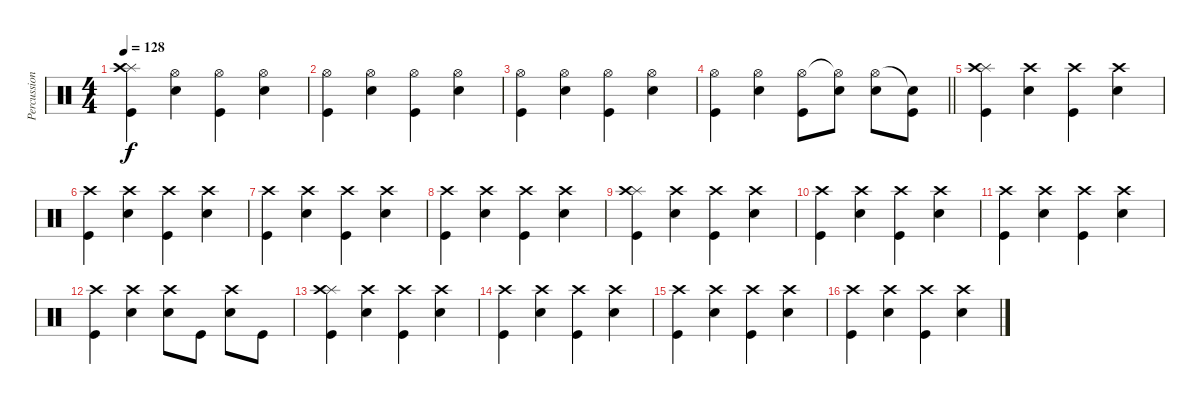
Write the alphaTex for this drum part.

\track ("Percussion" "Percussion") {instrument percussion}
\staff {score}
\articulation defaults
\ts (4 4)
\tempo 128
\clef neutral
\ks c
("Splash (hit)" "Crash high (hit)" "Kick (hit)").4{dy f} ("Hi-Hat (open)" "Electric Snare (hit)").4 ("Hi-Hat (open)" "Kick (hit)").4 ("Hi-Hat (open)" "Electric Snare (hit)").4 |
("Hi-Hat (open)" "Kick (hit)").4 ("Hi-Hat (open)" "Electric Snare (hit)").4 ("Hi-Hat (open)" "Kick (hit)").4 ("Hi-Hat (open)" "Electric Snare (hit)").4 |
("Hi-Hat (open)" "Kick (hit)").4 ("Hi-Hat (open)" "Electric Snare (hit)").4 ("Hi-Hat (open)" "Kick (hit)").4 ("Hi-Hat (open)" "Electric Snare (hit)").4 |
\barLineRight lightlight
("Hi-Hat (open)" "Kick (hit)").4 ("Hi-Hat (open)" "Electric Snare (hit)").4 ("Hi-Hat (open)" "Kick (hit)").8 ("Hi-Hat (open)"{t} "Electric Snare (hit)").8 ("Hi-Hat (open)" "Electric Snare (hit)").8 ("Snare (hit)"{t} "Kick (hit)").8 |
("Splash (hit)" "Crash high (hit)" "Kick (hit)").4 ("Crash high (hit)" "Electric Snare (hit)").4 ("Crash high (hit)" "Kick (hit)").4 ("Crash high (hit)" "Electric Snare (hit)").4 |
("Crash high (hit)" "Kick (hit)").4 ("Crash high (hit)" "Electric Snare (hit)").4 ("Crash high (hit)" "Kick (hit)").4 ("Crash high (hit)" "Electric Snare (hit)").4 |
("Crash high (hit)" "Kick (hit)").4 ("Crash high (hit)" "Electric Snare (hit)").4 ("Crash high (hit)" "Kick (hit)").4 ("Crash high (hit)" "Electric Snare (hit)").4 |
("Crash high (hit)" "Kick (hit)").4 ("Crash high (hit)" "Electric Snare (hit)").4 ("Crash high (hit)" "Kick (hit)").4 ("Crash high (hit)" "Electric Snare (hit)").4 |
("Splash (hit)" "Crash high (hit)" "Kick (hit)").4 ("Crash high (hit)" "Electric Snare (hit)").4 ("Crash high (hit)" "Kick (hit)").4 ("Crash high (hit)" "Electric Snare (hit)").4 |
("Crash high (hit)" "Kick (hit)").4 ("Crash high (hit)" "Electric Snare (hit)").4 ("Crash high (hit)" "Kick (hit)").4 ("Crash high (hit)" "Electric Snare (hit)").4 |
("Crash high (hit)" "Kick (hit)").4 ("Crash high (hit)" "Electric Snare (hit)").4 ("Crash high (hit)" "Kick (hit)").4 ("Crash high (hit)" "Electric Snare (hit)").4 |
("Crash high (hit)" "Kick (hit)").4 ("Crash high (hit)" "Electric Snare (hit)").4 ("Crash high (hit)" "Electric Snare (hit)").8 "Kick (hit)".8 ("Crash high (hit)" "Electric Snare (hit)").8 "Kick (hit)".8 |
("Splash (hit)" "Crash high (hit)" "Kick (hit)").4 ("Crash high (hit)" "Electric Snare (hit)").4 ("Crash high (hit)" "Kick (hit)").4 ("Crash high (hit)" "Electric Snare (hit)").4 |
("Crash high (hit)" "Kick (hit)").4 ("Crash high (hit)" "Electric Snare (hit)").4 ("Crash high (hit)" "Kick (hit)").4 ("Crash high (hit)" "Electric Snare (hit)").4 |
("Crash high (hit)" "Kick (hit)").4 ("Crash high (hit)" "Electric Snare (hit)").4 ("Crash high (hit)" "Kick (hit)").4 ("Crash high (hit)" "Electric Snare (hit)").4 |
("Crash high (hit)" "Kick (hit)").4 ("Crash high (hit)" "Electric Snare (hit)").4 ("Crash high (hit)" "Kick (hit)").4 ("Crash high (hit)" "Electric Snare (hit)").4
